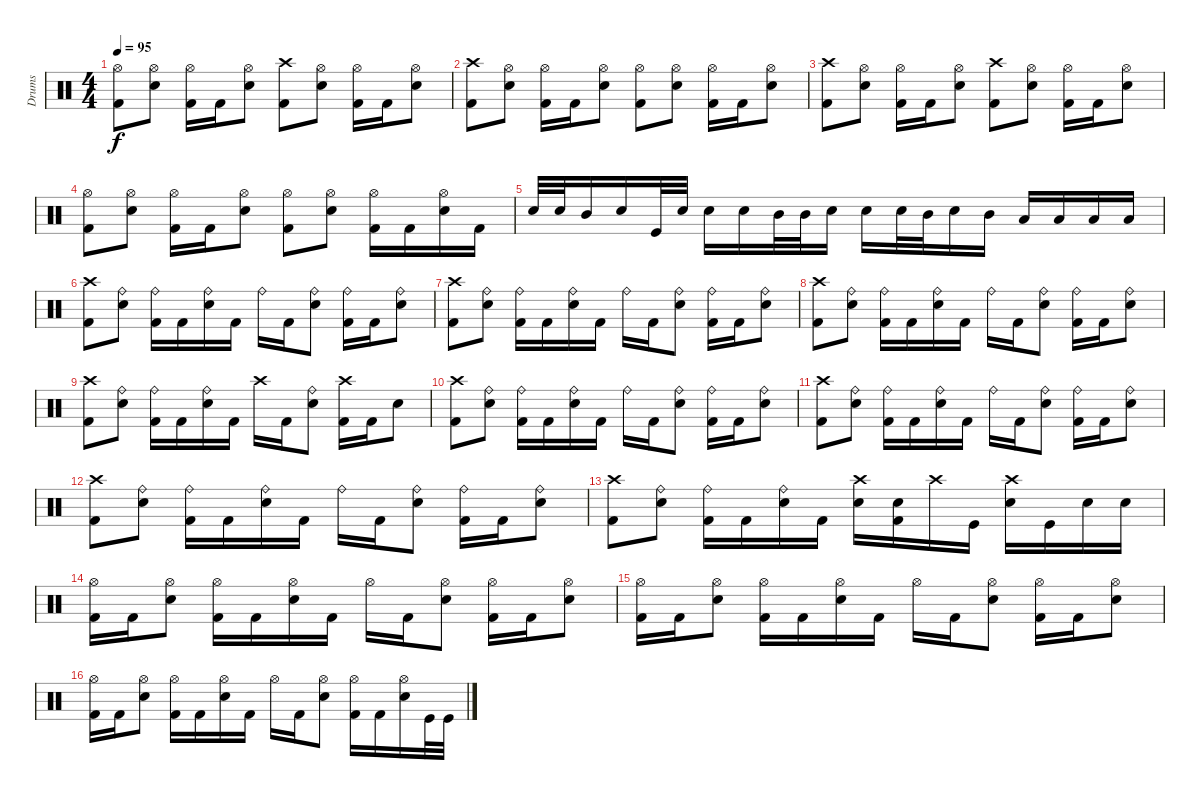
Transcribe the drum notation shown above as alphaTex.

\track ("Drums" "Drums") {instrument percussion}
\staff {score}
\articulation defaults
\ts (4 4)
\tempo 95
\clef neutral
\ks c
("Hi-Hat (open)" "Kick (hit) 2").8{dy f} ("Hi-Hat (open)" "Snare (hit) 2").8 ("Hi-Hat (open)" "Kick (hit) 2").16 "Kick (hit) 2".16 ("Hi-Hat (open)" "Snare (hit) 2").8 ("Crash high (hit)" "Kick (hit) 2").8 ("Hi-Hat (open)" "Snare (hit) 2").8 ("Hi-Hat (open)" "Kick (hit) 2").16 "Kick (hit) 2".16 ("Hi-Hat (open)" "Snare (hit) 2").8 |
("Crash high (hit)" "Kick (hit) 2").8 ("Hi-Hat (open)" "Snare (hit) 2").8 ("Hi-Hat (open)" "Kick (hit) 2").16 "Kick (hit) 2".16 ("Hi-Hat (open)" "Snare (hit) 2").8 ("Hi-Hat (open)" "Kick (hit) 2").8 ("Hi-Hat (open)" "Snare (hit) 2").8 ("Hi-Hat (open)" "Kick (hit) 2").16 "Kick (hit) 2".16 ("Hi-Hat (open)" "Snare (hit) 2").8 |
("Crash high (hit)" "Kick (hit) 2").8 ("Hi-Hat (open)" "Snare (hit) 2").8 ("Hi-Hat (open)" "Kick (hit) 2").16 "Kick (hit) 2".16 ("Hi-Hat (open)" "Snare (hit) 2").8 ("Crash high (hit)" "Kick (hit) 2").8 ("Hi-Hat (open)" "Snare (hit) 2").8 ("Hi-Hat (open)" "Kick (hit) 2").16 "Kick (hit) 2".16 ("Hi-Hat (open)" "Snare (hit) 2").8 |
("Hi-Hat (open)" "Kick (hit) 2").8 ("Hi-Hat (open)" "Snare (hit) 2").8 ("Hi-Hat (open)" "Kick (hit) 2").16 "Kick (hit) 2".16 ("Hi-Hat (open)" "Snare (hit) 2").8 ("Hi-Hat (open)" "Kick (hit) 2").8 ("Hi-Hat (open)" "Snare (hit) 2").8 ("Hi-Hat (open)" "Kick (hit) 2").16 "Kick (hit) 2".16 ("Hi-Hat (open)" "Snare (hit) 2").16 "Kick (hit) 2".16 |
"Snare (hit) 2".32 "Snare (hit) 2".32 "Mid Tom (hit)".16 "Snare (hit) 2".16 "Kick (hit)".32 "Snare (hit) 2".32 "Snare (hit) 2".16 "Snare (hit) 2".16 "Mid Tom (hit)".32 "Mid Tom (hit)".32 "Snare (hit) 2".16 "Snare (hit) 2".16 "Snare (hit) 2".32 "Mid Tom (hit)".32 "Snare (hit) 2".16 "Mid Tom (hit)".16 "Low Tom (hit)".16 "Low Tom (hit)".16 "Low Tom (hit)".16 "Low Tom (hit)".16 |
("Crash high (hit)" "Kick (hit) 2").8 ("Ride (bell)" "Snare (hit) 2").8 ("Ride (bell)" "Kick (hit) 2").16 "Kick (hit) 2".16 ("Ride (bell)" "Snare (hit) 2").16 "Kick (hit) 2".16 "Ride (bell)".16 "Kick (hit) 2".16 ("Ride (bell)" "Snare (hit) 2").8 ("Ride (bell)" "Kick (hit) 2").16 "Kick (hit) 2".16 ("Ride (bell)" "Snare (hit) 2").8 |
("Crash high (hit)" "Kick (hit) 2").8 ("Ride (bell)" "Snare (hit) 2").8 ("Ride (bell)" "Kick (hit) 2").16 "Kick (hit) 2".16 ("Ride (bell)" "Snare (hit) 2").16 "Kick (hit) 2".16 "Ride (bell)".16 "Kick (hit) 2".16 ("Ride (bell)" "Snare (hit) 2").8 ("Ride (bell)" "Kick (hit) 2").16 "Kick (hit) 2".16 ("Ride (bell)" "Snare (hit) 2").8 |
("Crash high (hit)" "Kick (hit) 2").8 ("Ride (bell)" "Snare (hit) 2").8 ("Ride (bell)" "Kick (hit) 2").16 "Kick (hit) 2".16 ("Ride (bell)" "Snare (hit) 2").16 "Kick (hit) 2".16 "Ride (bell)".16 "Kick (hit) 2".16 ("Ride (bell)" "Snare (hit) 2").8 ("Ride (bell)" "Kick (hit) 2").16 "Kick (hit) 2".16 ("Ride (bell)" "Snare (hit) 2").8 |
("Crash high (hit)" "Kick (hit) 2").8 ("Ride (bell)" "Snare (hit) 2").8 ("Ride (bell)" "Kick (hit) 2").16 "Kick (hit) 2".16 ("Ride (bell)" "Snare (hit) 2").16 "Kick (hit) 2".16 "Crash high (hit)".16 "Kick (hit) 2".16 ("Ride (bell)" "Snare (hit) 2").8 ("Crash high (hit)" "Kick (hit) 2").16 "Kick (hit) 2".16 "Snare (hit) 2".8 |
("Crash high (hit)" "Kick (hit) 2").8 ("Ride (bell)" "Snare (hit) 2").8 ("Ride (bell)" "Kick (hit) 2").16 "Kick (hit) 2".16 ("Ride (bell)" "Snare (hit) 2").16 "Kick (hit) 2".16 "Ride (bell)".16 "Kick (hit) 2".16 ("Ride (bell)" "Snare (hit) 2").8 ("Ride (bell)" "Kick (hit) 2").16 "Kick (hit) 2".16 ("Ride (bell)" "Snare (hit) 2").8 |
("Crash high (hit)" "Kick (hit) 2").8 ("Ride (bell)" "Snare (hit) 2").8 ("Ride (bell)" "Kick (hit) 2").16 "Kick (hit) 2".16 ("Ride (bell)" "Snare (hit) 2").16 "Kick (hit) 2".16 "Ride (bell)".16 "Kick (hit) 2".16 ("Ride (bell)" "Snare (hit) 2").8 ("Ride (bell)" "Kick (hit) 2").16 "Kick (hit) 2".16 ("Ride (bell)" "Snare (hit) 2").8 |
("Crash high (hit)" "Kick (hit) 2").8 ("Ride (bell)" "Snare (hit) 2").8 ("Ride (bell)" "Kick (hit) 2").16 "Kick (hit) 2".16 ("Ride (bell)" "Snare (hit) 2").16 "Kick (hit) 2".16 "Ride (bell)".16 "Kick (hit) 2".16 ("Ride (bell)" "Snare (hit) 2").8 ("Ride (bell)" "Kick (hit) 2").16 "Kick (hit) 2".16 ("Ride (bell)" "Snare (hit) 2").8 |
("Crash high (hit)" "Kick (hit) 2").8 ("Ride (bell)" "Snare (hit) 2").8 ("Ride (bell)" "Kick (hit) 2").16 "Kick (hit) 2".16 ("Ride (bell)" "Snare (hit) 2").16 "Kick (hit) 2".16 ("Snare (hit) 2" "Crash high (hit)").16 ("Snare (hit) 2" "Kick (hit) 2").16 "Crash high (hit)".16 "Kick (hit)".16 ("Crash high (hit)" "Snare (hit) 2").16 "Kick (hit)".16 "Snare (hit) 2".16 "Snare (hit) 2".16 |
("Kick (hit) 2" "Hi-Hat (open)").16 "Kick (hit) 2".16 ("Snare (hit) 2" "Hi-Hat (open)").8 ("Kick (hit) 2" "Hi-Hat (open)").16 "Kick (hit) 2".16 ("Snare (hit) 2" "Hi-Hat (open)").16 "Kick (hit) 2".16 "Hi-Hat (open)".16 "Kick (hit) 2".16 ("Snare (hit) 2" "Hi-Hat (open)").8 ("Kick (hit) 2" "Hi-Hat (open)").16 "Kick (hit) 2".16 ("Snare (hit) 2" "Hi-Hat (open)").8 |
("Kick (hit) 2" "Hi-Hat (open)").16 "Kick (hit) 2".16 ("Snare (hit) 2" "Hi-Hat (open)").8 ("Kick (hit) 2" "Hi-Hat (open)").16 "Kick (hit) 2".16 ("Snare (hit) 2" "Hi-Hat (open)").16 "Kick (hit) 2".16 "Hi-Hat (open)".16 "Kick (hit) 2".16 ("Snare (hit) 2" "Hi-Hat (open)").8 ("Kick (hit) 2" "Hi-Hat (open)").16 "Kick (hit) 2".16 ("Snare (hit) 2" "Hi-Hat (open)").8 |
("Kick (hit) 2" "Hi-Hat (open)").16 "Kick (hit) 2".16 ("Snare (hit) 2" "Hi-Hat (open)").8 ("Kick (hit) 2" "Hi-Hat (open)").16 "Kick (hit) 2".16 ("Snare (hit) 2" "Hi-Hat (open)").16 "Kick (hit) 2".16 "Hi-Hat (open)".16 "Kick (hit) 2".16 ("Snare (hit) 2" "Hi-Hat (open)").8 ("Kick (hit) 2" "Hi-Hat (open)").16 "Kick (hit) 2".16 ("Snare (hit) 2" "Hi-Hat (open)").16 "Kick (hit)".32 "Kick (hit)".32
